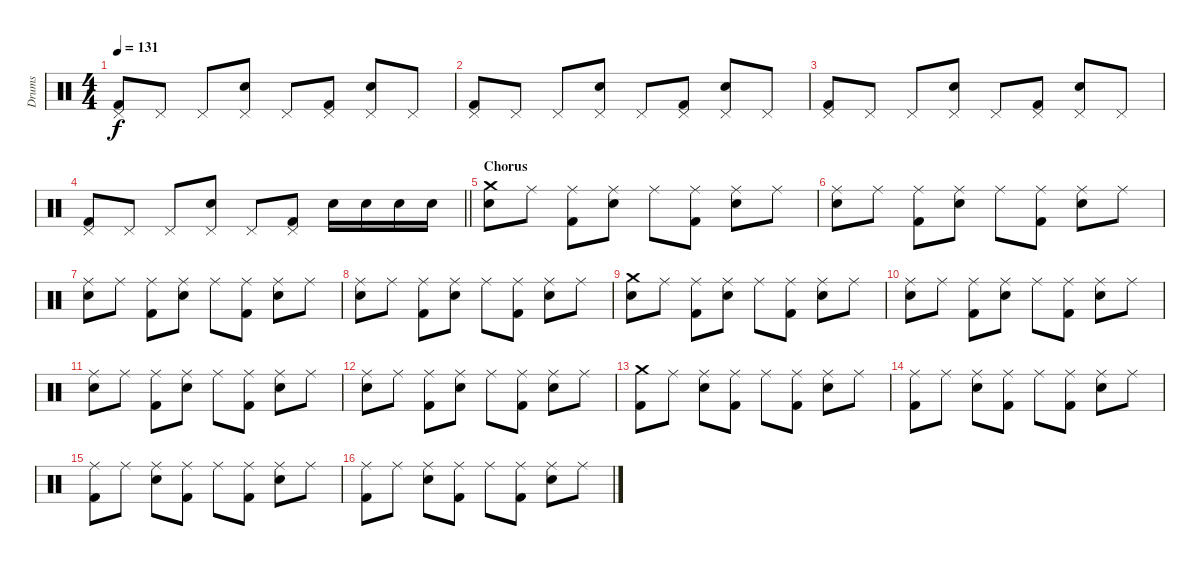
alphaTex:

\track ("Drums" "Drums") {instrument percussion}
\staff {score}
\articulation defaults
\ts (4 4)
\tempo 131
\clef neutral
\ks c
("Pedal Hi-Hat (hit)" "Kick (hit) 2").8{dy f} "Pedal Hi-Hat (hit)".8 "Pedal Hi-Hat (hit)".8 ("Pedal Hi-Hat (hit)" "Electric Snare (hit)").8 "Pedal Hi-Hat (hit)".8 ("Pedal Hi-Hat (hit)" "Kick (hit) 2").8 ("Pedal Hi-Hat (hit)" "Electric Snare (hit)").8 "Pedal Hi-Hat (hit)".8 |
("Pedal Hi-Hat (hit)" "Kick (hit) 2").8 "Pedal Hi-Hat (hit)".8 "Pedal Hi-Hat (hit)".8 ("Pedal Hi-Hat (hit)" "Electric Snare (hit)").8 "Pedal Hi-Hat (hit)".8 ("Pedal Hi-Hat (hit)" "Kick (hit) 2").8 ("Pedal Hi-Hat (hit)" "Electric Snare (hit)").8 "Pedal Hi-Hat (hit)".8 |
("Pedal Hi-Hat (hit)" "Kick (hit) 2").8 "Pedal Hi-Hat (hit)".8 "Pedal Hi-Hat (hit)".8 ("Pedal Hi-Hat (hit)" "Electric Snare (hit)").8 "Pedal Hi-Hat (hit)".8 ("Pedal Hi-Hat (hit)" "Kick (hit) 2").8 ("Pedal Hi-Hat (hit)" "Electric Snare (hit)").8 "Pedal Hi-Hat (hit)".8 |
\barLineRight lightlight
("Pedal Hi-Hat (hit)" "Kick (hit) 2").8 "Pedal Hi-Hat (hit)".8 "Pedal Hi-Hat (hit)".8 ("Pedal Hi-Hat (hit)" "Electric Snare (hit)").8 "Pedal Hi-Hat (hit)".8 ("Pedal Hi-Hat (hit)" "Kick (hit) 2").8 "Electric Snare (hit)".16 "Electric Snare (hit)".16 "Electric Snare (hit)".16 "Electric Snare (hit)".16 |
\section ("" "Chorus")
("Crash medium (hit)" "Electric Snare (hit)").8 "Ride (middle)".8 ("Ride (middle)" "Kick (hit) 2").8 ("Ride (middle)" "Electric Snare (hit)").8 "Ride (middle)".8 ("Ride (middle)" "Kick (hit) 2").8 ("Ride (middle)" "Electric Snare (hit)").8 "Ride (middle)".8 |
("Ride (middle)" "Electric Snare (hit)").8 "Ride (middle)".8 ("Ride (middle)" "Kick (hit) 2").8 ("Ride (middle)" "Electric Snare (hit)").8 "Ride (middle)".8 ("Ride (middle)" "Kick (hit) 2").8 ("Ride (middle)" "Electric Snare (hit)").8 "Ride (middle)".8 |
("Ride (middle)" "Electric Snare (hit)").8 "Ride (middle)".8 ("Ride (middle)" "Kick (hit) 2").8 ("Ride (middle)" "Electric Snare (hit)").8 "Ride (middle)".8 ("Ride (middle)" "Kick (hit) 2").8 ("Ride (middle)" "Electric Snare (hit)").8 "Ride (middle)".8 |
("Ride (middle)" "Electric Snare (hit)").8 "Ride (middle)".8 ("Ride (middle)" "Kick (hit) 2").8 ("Ride (middle)" "Electric Snare (hit)").8 "Ride (middle)".8 ("Ride (middle)" "Kick (hit) 2").8 ("Ride (middle)" "Electric Snare (hit)").8 "Ride (middle)".8 |
("Crash medium (hit)" "Electric Snare (hit)").8 "Ride (middle)".8 ("Ride (middle)" "Kick (hit) 2").8 ("Ride (middle)" "Electric Snare (hit)").8 "Ride (middle)".8 ("Ride (middle)" "Kick (hit) 2").8 ("Ride (middle)" "Electric Snare (hit)").8 "Ride (middle)".8 |
("Ride (middle)" "Electric Snare (hit)").8 "Ride (middle)".8 ("Ride (middle)" "Kick (hit) 2").8 ("Ride (middle)" "Electric Snare (hit)").8 "Ride (middle)".8 ("Ride (middle)" "Kick (hit) 2").8 ("Ride (middle)" "Electric Snare (hit)").8 "Ride (middle)".8 |
("Ride (middle)" "Electric Snare (hit)").8 "Ride (middle)".8 ("Ride (middle)" "Kick (hit) 2").8 ("Ride (middle)" "Electric Snare (hit)").8 "Ride (middle)".8 ("Ride (middle)" "Kick (hit) 2").8 ("Ride (middle)" "Electric Snare (hit)").8 "Ride (middle)".8 |
("Ride (middle)" "Electric Snare (hit)").8 "Ride (middle)".8 ("Ride (middle)" "Kick (hit) 2").8 ("Ride (middle)" "Electric Snare (hit)").8 "Ride (middle)".8 ("Ride (middle)" "Kick (hit) 2").8 ("Ride (middle)" "Electric Snare (hit)").8 "Ride (middle)".8 |
("Crash medium (hit)" "Kick (hit) 2").8 "Ride (middle)".8 ("Ride (middle)" "Electric Snare (hit)").8 ("Ride (middle)" "Kick (hit) 2").8 "Ride (middle)".8 ("Ride (middle)" "Kick (hit) 2").8 ("Ride (middle)" "Electric Snare (hit)").8 "Ride (middle)".8 |
("Ride (middle)" "Kick (hit) 2").8 "Ride (middle)".8 ("Ride (middle)" "Electric Snare (hit)").8 ("Ride (middle)" "Kick (hit) 2").8 "Ride (middle)".8 ("Ride (middle)" "Kick (hit) 2").8 ("Ride (middle)" "Electric Snare (hit)").8 "Ride (middle)".8 |
("Ride (middle)" "Kick (hit) 2").8 "Ride (middle)".8 ("Ride (middle)" "Electric Snare (hit)").8 ("Ride (middle)" "Kick (hit) 2").8 "Ride (middle)".8 ("Ride (middle)" "Kick (hit) 2").8 ("Ride (middle)" "Electric Snare (hit)").8 "Ride (middle)".8 |
("Ride (middle)" "Kick (hit) 2").8 "Ride (middle)".8 ("Ride (middle)" "Electric Snare (hit)").8 ("Ride (middle)" "Kick (hit) 2").8 "Ride (middle)".8 ("Ride (middle)" "Kick (hit) 2").8 ("Ride (middle)" "Electric Snare (hit)").8 "Ride (middle)".8
